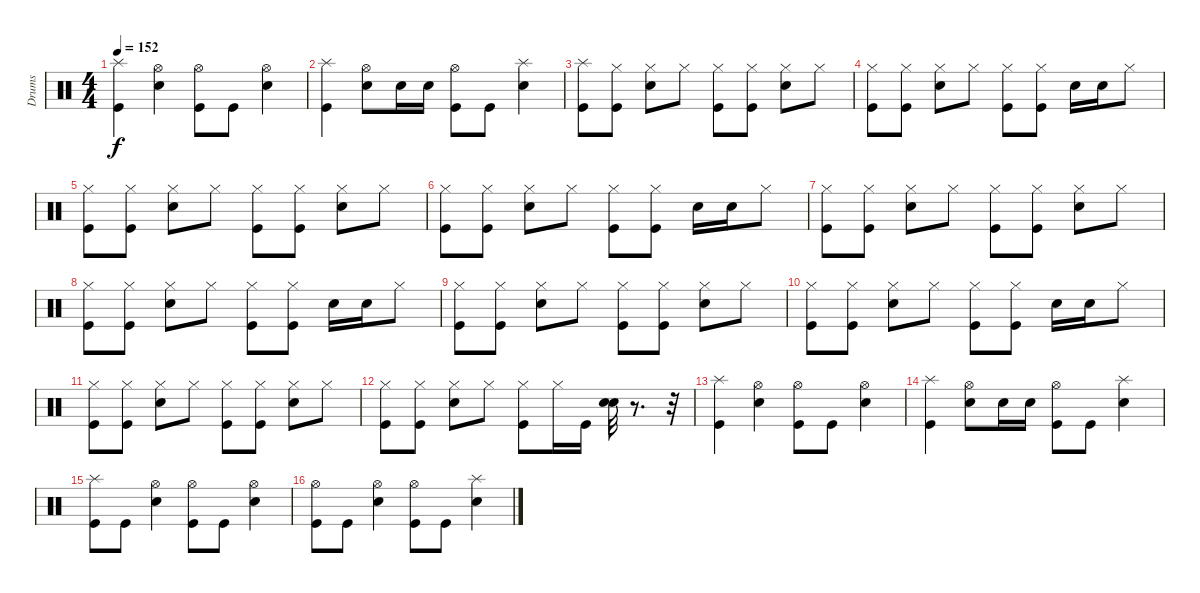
\track ("Drums" "Drums") {instrument percussion}
\staff {score}
\articulation defaults
\ts (4 4)
\tempo 152
\clef neutral
\ks c
("Splash (hit)" "Kick (hit)").4{dy f} ("Hi-Hat (open)" "Snare (hit) 2").4 ("Hi-Hat (open)" "Kick (hit)").8 "Kick (hit)".8 ("Hi-Hat (open)" "Snare (hit) 2").4 |
("Splash (hit)" "Kick (hit)").4 ("Hi-Hat (open)" "Snare (hit) 2").8 "Snare (hit) 2".16 "Snare (hit) 2".16 ("Hi-Hat (open)" "Kick (hit)").8 "Kick (hit)".8 ("Splash (hit)" "Snare (hit) 2").4 |
("Splash (hit)" "Kick (hit)").8 ("Hi-Hat (closed)" "Kick (hit)").8 ("Hi-Hat (closed)" "Snare (hit) 2").8 "Hi-Hat (closed)".8 ("Hi-Hat (closed)" "Kick (hit)").8 ("Hi-Hat (closed)" "Kick (hit)").8 ("Hi-Hat (closed)" "Snare (hit) 2").8 "Hi-Hat (closed)".8 |
("Hi-Hat (closed)" "Kick (hit)").8 ("Hi-Hat (closed)" "Kick (hit)").8 ("Hi-Hat (closed)" "Snare (hit) 2").8 "Hi-Hat (closed)".8 ("Hi-Hat (closed)" "Kick (hit)").8 ("Hi-Hat (closed)" "Kick (hit)").8 "Snare (hit) 2".16 "Snare (hit) 2".16 "Hi-Hat (closed)".8 |
("Hi-Hat (closed)" "Kick (hit)").8 ("Hi-Hat (closed)" "Kick (hit)").8 ("Hi-Hat (closed)" "Snare (hit) 2").8 "Hi-Hat (closed)".8 ("Hi-Hat (closed)" "Kick (hit)").8 ("Hi-Hat (closed)" "Kick (hit)").8 ("Hi-Hat (closed)" "Snare (hit) 2").8 "Hi-Hat (closed)".8 |
("Hi-Hat (closed)" "Kick (hit)").8 ("Hi-Hat (closed)" "Kick (hit)").8 ("Hi-Hat (closed)" "Snare (hit) 2").8 "Hi-Hat (closed)".8 ("Hi-Hat (closed)" "Kick (hit)").8 ("Hi-Hat (closed)" "Kick (hit)").8 "Snare (hit) 2".16 "Snare (hit) 2".16 "Hi-Hat (closed)".8 |
("Hi-Hat (closed)" "Kick (hit)").8 ("Hi-Hat (closed)" "Kick (hit)").8 ("Hi-Hat (closed)" "Snare (hit) 2").8 "Hi-Hat (closed)".8 ("Hi-Hat (closed)" "Kick (hit)").8 ("Hi-Hat (closed)" "Kick (hit)").8 ("Hi-Hat (closed)" "Snare (hit) 2").8 "Hi-Hat (closed)".8 |
("Hi-Hat (closed)" "Kick (hit)").8 ("Hi-Hat (closed)" "Kick (hit)").8 ("Hi-Hat (closed)" "Snare (hit) 2").8 "Hi-Hat (closed)".8 ("Hi-Hat (closed)" "Kick (hit)").8 ("Hi-Hat (closed)" "Kick (hit)").8 "Snare (hit) 2".16 "Snare (hit) 2".16 "Hi-Hat (closed)".8 |
("Hi-Hat (closed)" "Kick (hit)").8 ("Hi-Hat (closed)" "Kick (hit)").8 ("Hi-Hat (closed)" "Snare (hit) 2").8 "Hi-Hat (closed)".8 ("Hi-Hat (closed)" "Kick (hit)").8 ("Hi-Hat (closed)" "Kick (hit)").8 ("Hi-Hat (closed)" "Snare (hit) 2").8 "Hi-Hat (closed)".8 |
("Hi-Hat (closed)" "Kick (hit)").8 ("Hi-Hat (closed)" "Kick (hit)").8 ("Hi-Hat (closed)" "Snare (hit) 2").8 "Hi-Hat (closed)".8 ("Hi-Hat (closed)" "Kick (hit)").8 ("Hi-Hat (closed)" "Kick (hit)").8 "Snare (hit) 2".16 "Snare (hit) 2".16 "Hi-Hat (closed)".8 |
("Hi-Hat (closed)" "Kick (hit)").8 ("Hi-Hat (closed)" "Kick (hit)").8 ("Hi-Hat (closed)" "Snare (hit) 2").8 "Hi-Hat (closed)".8 ("Hi-Hat (closed)" "Kick (hit)").8 ("Hi-Hat (closed)" "Kick (hit)").8 ("Hi-Hat (closed)" "Snare (hit) 2").8 "Hi-Hat (closed)".8 |
("Hi-Hat (closed)" "Kick (hit)").8 ("Hi-Hat (closed)" "Kick (hit)").8 ("Hi-Hat (closed)" "Snare (hit) 2").8 "Hi-Hat (closed)".8 ("Hi-Hat (closed)" "Kick (hit)").8 "Hi-Hat (closed)".16 "Kick (hit)".16 ("Snare (hit) 2" "Snare (hit) 2").32 r.8{d} r.32 |
("Splash (hit)" "Kick (hit)").4 ("Hi-Hat (open)" "Snare (hit) 2").4 ("Hi-Hat (open)" "Kick (hit)").8 "Kick (hit)".8 ("Hi-Hat (open)" "Snare (hit) 2").4 |
("Splash (hit)" "Kick (hit)").4 ("Hi-Hat (open)" "Snare (hit) 2").8 "Snare (hit) 2".16 "Snare (hit) 2".16 ("Hi-Hat (open)" "Kick (hit)").8 "Kick (hit)".8 ("Splash (hit)" "Snare (hit) 2").4 |
("Splash (hit)" "Kick (hit)").8 "Kick (hit)".8 ("Hi-Hat (open)" "Snare (hit) 2").4 ("Hi-Hat (open)" "Kick (hit)").8 "Kick (hit)".8 ("Hi-Hat (open)" "Snare (hit) 2").4 |
("Hi-Hat (open)" "Kick (hit)").8 "Kick (hit)".8 ("Hi-Hat (open)" "Snare (hit) 2").4 ("Hi-Hat (open)" "Kick (hit)").8 "Kick (hit)".8 ("Splash (hit)" "Snare (hit) 2").4
